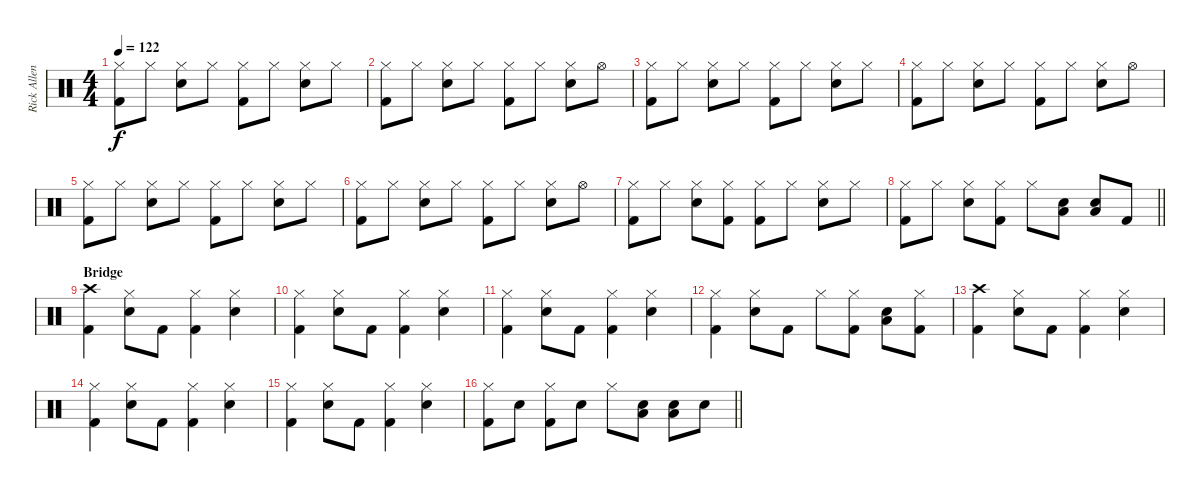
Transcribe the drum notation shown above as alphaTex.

\track ("Rick Allen" "Rick Allen") {instrument percussion}
\staff {score}
\articulation defaults
\ts (4 4)
\tempo 122
\clef neutral
\ks c
("Hi-Hat (closed)" "Kick (hit) 2").8{dy f} "Hi-Hat (closed)".8 ("Hi-Hat (closed)" "Electric Snare (hit)").8 "Hi-Hat (closed)".8 ("Hi-Hat (closed)" "Kick (hit) 2").8 "Hi-Hat (closed)".8 ("Hi-Hat (closed)" "Electric Snare (hit)").8 "Hi-Hat (closed)".8 |
("Hi-Hat (closed)" "Kick (hit) 2").8 "Hi-Hat (closed)".8 ("Hi-Hat (closed)" "Electric Snare (hit)").8 "Hi-Hat (closed)".8 ("Hi-Hat (closed)" "Kick (hit) 2").8 "Hi-Hat (closed)".8 ("Hi-Hat (closed)" "Electric Snare (hit)").8 "Hi-Hat (open)".8 |
("Hi-Hat (closed)" "Kick (hit) 2").8 "Hi-Hat (closed)".8 ("Hi-Hat (closed)" "Electric Snare (hit)").8 "Hi-Hat (closed)".8 ("Hi-Hat (closed)" "Kick (hit) 2").8 "Hi-Hat (closed)".8 ("Hi-Hat (closed)" "Electric Snare (hit)").8 "Hi-Hat (closed)".8 |
("Hi-Hat (closed)" "Kick (hit) 2").8 "Hi-Hat (closed)".8 ("Hi-Hat (closed)" "Electric Snare (hit)").8 "Hi-Hat (closed)".8 ("Hi-Hat (closed)" "Kick (hit) 2").8 "Hi-Hat (closed)".8 ("Hi-Hat (closed)" "Electric Snare (hit)").8 "Hi-Hat (open)".8 |
("Hi-Hat (closed)" "Kick (hit) 2").8 "Hi-Hat (closed)".8 ("Hi-Hat (closed)" "Electric Snare (hit)").8 "Hi-Hat (closed)".8 ("Hi-Hat (closed)" "Kick (hit) 2").8 "Hi-Hat (closed)".8 ("Hi-Hat (closed)" "Electric Snare (hit)").8 "Hi-Hat (closed)".8 |
("Hi-Hat (closed)" "Kick (hit) 2").8 "Hi-Hat (closed)".8 ("Hi-Hat (closed)" "Electric Snare (hit)").8 "Hi-Hat (closed)".8 ("Hi-Hat (closed)" "Kick (hit) 2").8 "Hi-Hat (closed)".8 ("Hi-Hat (closed)" "Electric Snare (hit)").8 "Hi-Hat (open)".8 |
("Hi-Hat (closed)" "Kick (hit) 2").8 "Hi-Hat (closed)".8 ("Hi-Hat (closed)" "Electric Snare (hit)").8 ("Hi-Hat (closed)" "Kick (hit) 2").8 ("Hi-Hat (closed)" "Kick (hit) 2").8 "Hi-Hat (closed)".8 ("Hi-Hat (closed)" "Electric Snare (hit)").8 "Hi-Hat (closed)".8 |
\barLineRight lightlight
("Hi-Hat (closed)" "Kick (hit) 2").8 "Hi-Hat (closed)".8 ("Hi-Hat (closed)" "Electric Snare (hit)").8 ("Hi-Hat (closed)" "Kick (hit) 2").8 "Hi-Hat (closed)".8 ("Low Tom (hit)" "Electric Snare (hit)").8 ("Low Tom (hit)" "Electric Snare (hit)").8 "Kick (hit) 2".8 |
\section ("" "Bridge")
("Crash high (hit)" "Kick (hit) 2").4 ("Hi-Hat (closed)" "Electric Snare (hit)").8 "Kick (hit) 2".8 ("Hi-Hat (closed)" "Kick (hit) 2").4 ("Hi-Hat (closed)" "Electric Snare (hit)").4 |
("Hi-Hat (closed)" "Kick (hit) 2").4 ("Hi-Hat (closed)" "Electric Snare (hit)").8 "Kick (hit) 2".8 ("Hi-Hat (closed)" "Kick (hit) 2").4 ("Hi-Hat (closed)" "Electric Snare (hit)").4 |
("Hi-Hat (closed)" "Kick (hit) 2").4 ("Hi-Hat (closed)" "Electric Snare (hit)").8 "Kick (hit) 2".8 ("Hi-Hat (closed)" "Kick (hit) 2").4 ("Hi-Hat (closed)" "Electric Snare (hit)").4 |
("Hi-Hat (closed)" "Kick (hit) 2").4 ("Hi-Hat (closed)" "Electric Snare (hit)").8 "Kick (hit) 2".8 "Hi-Hat (closed)".8 ("Hi-Hat (closed)" "Kick (hit) 2").8 ("Low Tom (hit)" "Electric Snare (hit)").8 ("Hi-Hat (closed)" "Kick (hit) 2").8 |
("Crash high (hit)" "Kick (hit) 2").4 ("Hi-Hat (closed)" "Electric Snare (hit)").8 "Kick (hit) 2".8 ("Hi-Hat (closed)" "Kick (hit) 2").4 ("Hi-Hat (closed)" "Electric Snare (hit)").4 |
("Hi-Hat (closed)" "Kick (hit) 2").4 ("Hi-Hat (closed)" "Electric Snare (hit)").8 "Kick (hit) 2".8 ("Hi-Hat (closed)" "Kick (hit) 2").4 ("Hi-Hat (closed)" "Electric Snare (hit)").4 |
("Hi-Hat (closed)" "Kick (hit) 2").4 ("Hi-Hat (closed)" "Electric Snare (hit)").8 "Kick (hit) 2".8 ("Hi-Hat (closed)" "Kick (hit) 2").4 ("Hi-Hat (closed)" "Electric Snare (hit)").4 |
\barLineRight lightlight
("Hi-Hat (closed)" "Kick (hit) 2").8 "Electric Snare (hit)".8 ("Hi-Hat (closed)" "Kick (hit) 2").8 "Electric Snare (hit)".8 "Hi-Hat (closed)".8 ("Low Tom (hit)" "Electric Snare (hit)").8 ("Low Tom (hit)" "Electric Snare (hit)").8 "Electric Snare (hit)".8
